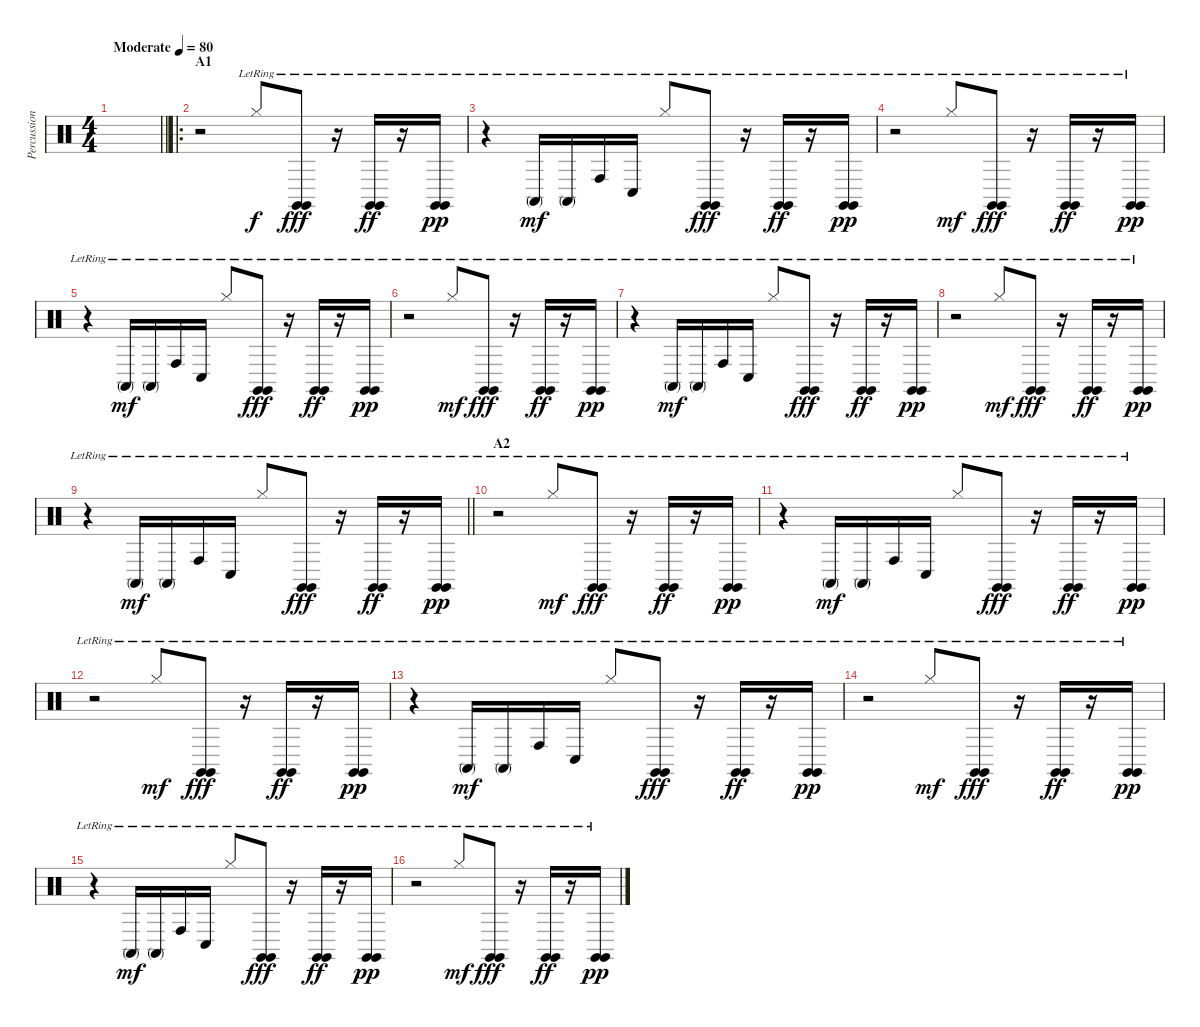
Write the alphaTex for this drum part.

\track ("Percussion" "Percussion") {instrument percussion}
\staff {score}
\articulation defaults
\ts (4 4)
\tempo (80 "Moderate")
\clef neutral
\barLineRight lightlight
\ks c
|
\ro
\section ("" "A1")
r.2 "Hi-Hat (closed)"{lr}.8{balance 3} ("Claves (hit)"{lr} "Claves (hit)"{lr}).8{dy fff balance 13} r.16 ("Claves (hit)"{lr} "Claves (hit)"{lr}).16{dy ff} r.16 ("Claves (hit)"{lr} "Claves (hit)"{lr}).16{dy pp} |
r.4 "Conga high (mute)"{lr}.16{dy mf} "Conga high (mute)"{lr}.16 "Conga high (hit)"{lr}.16{balance 5} "Conga low (hit)"{lr}.16{balance 3} "Hi-Hat (closed)"{lr}.8 ("Claves (hit)"{lr} "Claves (hit)"{lr}).8{dy fff balance 13} r.16 ("Claves (hit)"{lr} "Claves (hit)"{lr}).16{dy ff} r.16 ("Claves (hit)"{lr} "Claves (hit)"{lr}).16{dy pp} |
r.2 "Hi-Hat (closed)"{lr}.8{dy mf balance 3} ("Claves (hit)"{lr} "Claves (hit)"{lr}).8{dy fff balance 13} r.16 ("Claves (hit)"{lr} "Claves (hit)"{lr}).16{dy ff} r.16 ("Claves (hit)"{lr} "Claves (hit)"{lr}).16{dy pp} |
r.4 "Conga high (mute)"{lr}.16{dy mf} "Conga high (mute)"{lr}.16 "Conga high (hit)"{lr}.16{balance 5} "Conga low (hit)"{lr}.16{balance 3} "Hi-Hat (closed)"{lr}.8 ("Claves (hit)"{lr} "Claves (hit)"{lr}).8{dy fff balance 13} r.16 ("Claves (hit)"{lr} "Claves (hit)"{lr}).16{dy ff} r.16 ("Claves (hit)"{lr} "Claves (hit)"{lr}).16{dy pp} |
r.2 "Hi-Hat (closed)"{lr}.8{dy mf balance 3} ("Claves (hit)"{lr} "Claves (hit)"{lr}).8{dy fff balance 13} r.16 ("Claves (hit)"{lr} "Claves (hit)"{lr}).16{dy ff} r.16 ("Claves (hit)"{lr} "Claves (hit)"{lr}).16{dy pp} |
r.4 "Conga high (mute)"{lr}.16{dy mf} "Conga high (mute)"{lr}.16 "Conga high (hit)"{lr}.16{balance 5} "Conga low (hit)"{lr}.16{balance 3} "Hi-Hat (closed)"{lr}.8 ("Claves (hit)"{lr} "Claves (hit)"{lr}).8{dy fff balance 13} r.16 ("Claves (hit)"{lr} "Claves (hit)"{lr}).16{dy ff} r.16 ("Claves (hit)"{lr} "Claves (hit)"{lr}).16{dy pp} |
r.2 "Hi-Hat (closed)"{lr}.8{dy mf balance 3} ("Claves (hit)"{lr} "Claves (hit)"{lr}).8{dy fff balance 13} r.16 ("Claves (hit)"{lr} "Claves (hit)"{lr}).16{dy ff} r.16 ("Claves (hit)"{lr} "Claves (hit)"{lr}).16{dy pp} |
\barLineRight lightlight
r.4 "Conga high (mute)"{lr}.16{dy mf} "Conga high (mute)"{lr}.16 "Conga high (hit)"{lr}.16{balance 5} "Conga low (hit)"{lr}.16{balance 3} "Hi-Hat (closed)"{lr}.8 ("Claves (hit)"{lr} "Claves (hit)"{lr}).8{dy fff balance 13} r.16 ("Claves (hit)"{lr} "Claves (hit)"{lr}).16{dy ff} r.16 ("Claves (hit)"{lr} "Claves (hit)"{lr}).16{dy pp} |
\section ("" "A2")
r.2 "Hi-Hat (closed)"{lr}.8{dy mf balance 3} ("Claves (hit)"{lr} "Claves (hit)"{lr}).8{dy fff balance 13} r.16 ("Claves (hit)"{lr} "Claves (hit)"{lr}).16{dy ff} r.16 ("Claves (hit)"{lr} "Claves (hit)"{lr}).16{dy pp} |
r.4 "Conga high (mute)"{lr}.16{dy mf} "Conga high (mute)"{lr}.16 "Conga high (hit)"{lr}.16{balance 5} "Conga low (hit)"{lr}.16{balance 3} "Hi-Hat (closed)"{lr}.8 ("Claves (hit)"{lr} "Claves (hit)"{lr}).8{dy fff balance 13} r.16 ("Claves (hit)"{lr} "Claves (hit)"{lr}).16{dy ff} r.16 ("Claves (hit)"{lr} "Claves (hit)"{lr}).16{dy pp} |
r.2 "Hi-Hat (closed)"{lr}.8{dy mf balance 3} ("Claves (hit)"{lr} "Claves (hit)"{lr}).8{dy fff balance 13} r.16 ("Claves (hit)"{lr} "Claves (hit)"{lr}).16{dy ff} r.16 ("Claves (hit)"{lr} "Claves (hit)"{lr}).16{dy pp} |
r.4 "Conga high (mute)"{lr}.16{dy mf} "Conga high (mute)"{lr}.16 "Conga high (hit)"{lr}.16{balance 5} "Conga low (hit)"{lr}.16{balance 3} "Hi-Hat (closed)"{lr}.8 ("Claves (hit)"{lr} "Claves (hit)"{lr}).8{dy fff balance 13} r.16 ("Claves (hit)"{lr} "Claves (hit)"{lr}).16{dy ff} r.16 ("Claves (hit)"{lr} "Claves (hit)"{lr}).16{dy pp} |
r.2 "Hi-Hat (closed)"{lr}.8{dy mf balance 3} ("Claves (hit)"{lr} "Claves (hit)"{lr}).8{dy fff balance 13} r.16 ("Claves (hit)"{lr} "Claves (hit)"{lr}).16{dy ff} r.16 ("Claves (hit)"{lr} "Claves (hit)"{lr}).16{dy pp} |
r.4 "Conga high (mute)"{lr}.16{dy mf} "Conga high (mute)"{lr}.16 "Conga high (hit)"{lr}.16{balance 5} "Conga low (hit)"{lr}.16{balance 3} "Hi-Hat (closed)"{lr}.8 ("Claves (hit)"{lr} "Claves (hit)"{lr}).8{dy fff balance 13} r.16 ("Claves (hit)"{lr} "Claves (hit)"{lr}).16{dy ff} r.16 ("Claves (hit)"{lr} "Claves (hit)"{lr}).16{dy pp} |
r.2 "Hi-Hat (closed)"{lr}.8{dy mf balance 3} ("Claves (hit)"{lr} "Claves (hit)"{lr}).8{dy fff balance 13} r.16 ("Claves (hit)"{lr} "Claves (hit)"{lr}).16{dy ff} r.16 ("Claves (hit)"{lr} "Claves (hit)"{lr}).16{dy pp}
